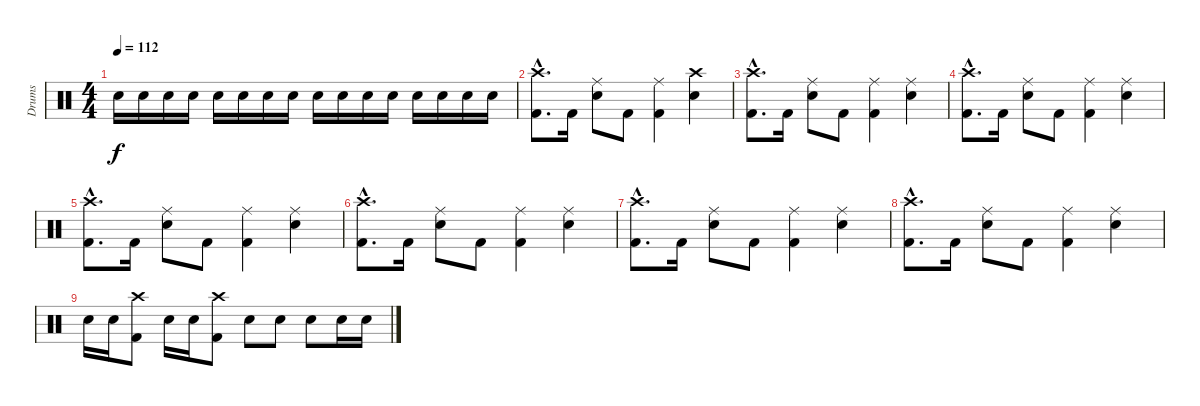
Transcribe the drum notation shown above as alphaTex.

\track ("Drums" "Drums") {instrument percussion}
\staff {score}
\articulation defaults
\ts (4 4)
\tempo 112
\clef neutral
\ks c "Electric Snare (hit)".16{dy f} "Electric Snare (hit)".16 "Electric Snare (hit)".16 "Electric Snare (hit)".16 "Electric Snare (hit)".16 "Electric Snare (hit)".16 "Electric Snare (hit)".16 "Electric Snare (hit)".16 "Electric Snare (hit)".16 "Electric Snare (hit)".16 "Electric Snare (hit)".16 "Electric Snare (hit)".16 "Electric Snare (hit)".16 "Electric Snare (hit)".16 "Electric Snare (hit)".16 "Electric Snare (hit)".16
|
("Crash high (hit)"{hac} "Kick (hit) 2"{hac}).8{d} "Kick (hit) 2".16 ("Ride (middle)" "Electric Snare (hit)").8 "Kick (hit) 2".8 ("Ride (middle)" "Kick (hit) 2").4 ("Crash high (hit)" "Electric Snare (hit)").4 |
("Crash high (hit)"{hac} "Kick (hit) 2"{hac}).8{d} "Kick (hit) 2".16 ("Ride (middle)" "Electric Snare (hit)").8 "Kick (hit) 2".8 ("Ride (middle)" "Kick (hit) 2").4 ("Ride (middle)" "Electric Snare (hit)").4 |
("Crash high (hit)"{hac} "Kick (hit) 2"{hac}).8{d} "Kick (hit) 2".16 ("Ride (middle)" "Electric Snare (hit)").8 "Kick (hit) 2".8 ("Ride (middle)" "Kick (hit) 2").4 ("Ride (middle)" "Electric Snare (hit)").4 |
("Crash high (hit)"{hac} "Kick (hit) 2"{hac}).8{d} "Kick (hit) 2".16 ("Ride (middle)" "Electric Snare (hit)").8 "Kick (hit) 2".8 ("Ride (middle)" "Kick (hit) 2").4 ("Ride (middle)" "Electric Snare (hit)").4 |
("Crash high (hit)"{hac} "Kick (hit) 2"{hac}).8{d} "Kick (hit) 2".16 ("Ride (middle)" "Electric Snare (hit)").8 "Kick (hit) 2".8 ("Ride (middle)" "Kick (hit) 2").4 ("Ride (middle)" "Electric Snare (hit)").4 |
("Crash high (hit)"{hac} "Kick (hit) 2"{hac}).8{d} "Kick (hit) 2".16 ("Ride (middle)" "Electric Snare (hit)").8 "Kick (hit) 2".8 ("Ride (middle)" "Kick (hit) 2").4 ("Ride (middle)" "Electric Snare (hit)").4 |
("Crash high (hit)"{hac} "Kick (hit) 2"{hac}).8{d} "Kick (hit) 2".16 ("Ride (middle)" "Electric Snare (hit)").8 "Kick (hit) 2".8 ("Ride (middle)" "Kick (hit) 2").4 ("Ride (middle)" "Electric Snare (hit)").4 |
"Electric Snare (hit)".16 "Electric Snare (hit)".16 ("Crash high (hit)" "Kick (hit) 2").8 "Electric Snare (hit)".16 "Electric Snare (hit)".16 ("Crash high (hit)" "Kick (hit) 2").8 "Electric Snare (hit)".8 "Electric Snare (hit)".8 "Electric Snare (hit)".8 "Electric Snare (hit)".16 "Electric Snare (hit)".16
